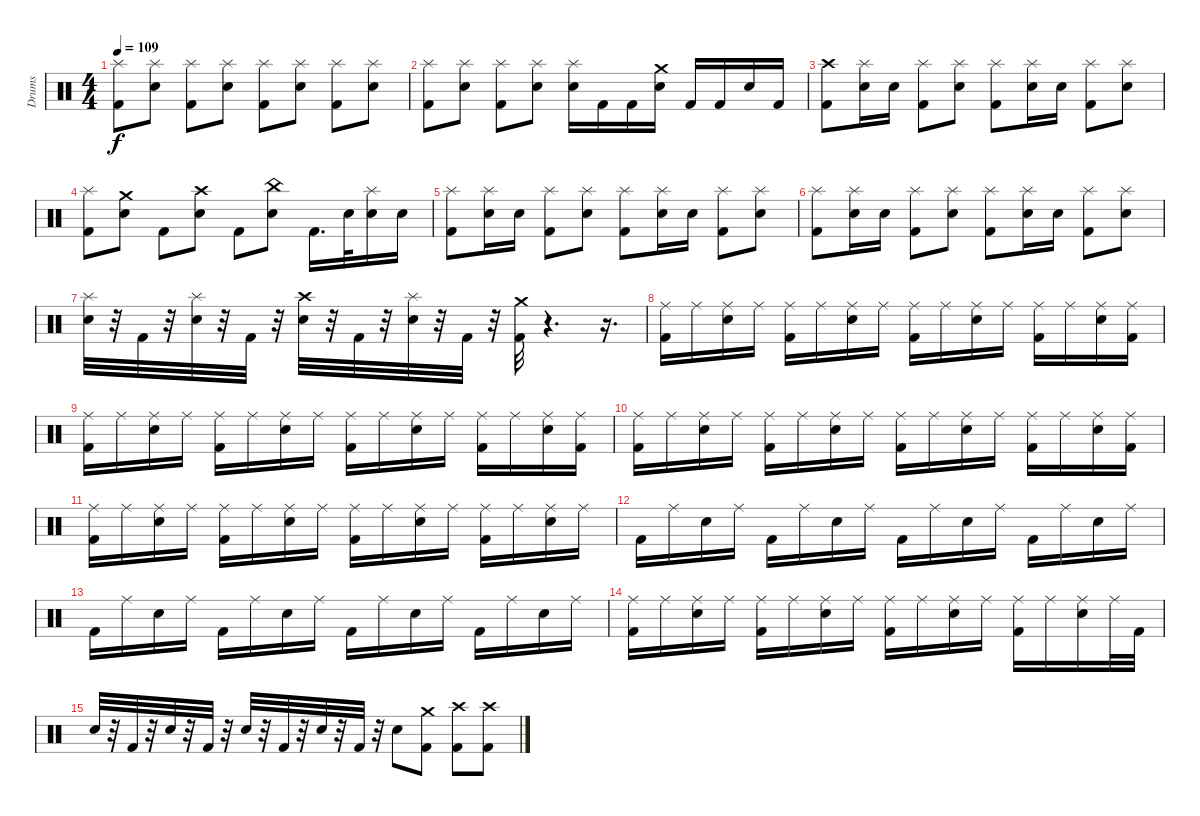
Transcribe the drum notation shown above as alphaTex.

\track ("Drums" "Drums") {instrument percussion}
\staff {score}
\articulation defaults
\ts (4 4)
\tempo 109
\clef neutral
\ks c
("Splash (hit)" "Kick (hit) 2").8{dy f} ("Splash (hit)" "Electric Snare (hit)").8 ("Splash (hit)" "Kick (hit) 2").8 ("Splash (hit)" "Electric Snare (hit)").8 ("Splash (hit)" "Kick (hit) 2").8 ("Splash (hit)" "Electric Snare (hit)").8 ("Splash (hit)" "Kick (hit) 2").8 ("Splash (hit)" "Electric Snare (hit)").8 |
("Splash (hit)" "Kick (hit) 2").8 ("Splash (hit)" "Electric Snare (hit)").8 ("Splash (hit)" "Kick (hit) 2").8 ("Splash (hit)" "Electric Snare (hit)").8 ("Splash (hit)" "Electric Snare (hit)").16 "Kick (hit) 2".16 "Kick (hit) 2".16 ("Crash medium (hit)" "Electric Snare (hit)").16 "Kick (hit) 2".16 "Kick (hit) 2".16 "Electric Snare (hit)".16 "Kick (hit) 2".16 |
("Crash high (hit)" "Kick (hit) 2").8 ("Splash (hit)" "Electric Snare (hit)").16 "Electric Snare (hit)".16 ("Splash (hit)" "Kick (hit) 2").8 ("Splash (hit)" "Electric Snare (hit)").8 ("Splash (hit)" "Kick (hit) 2").8 ("Splash (hit)" "Electric Snare (hit)").16 "Electric Snare (hit)".16 ("Splash (hit)" "Kick (hit) 2").8 ("Splash (hit)" "Electric Snare (hit)").8 |
("Splash (hit)" "Kick (hit) 2").8 ("Crash medium (hit)" "Electric Snare (hit)").8 "Kick (hit) 2".8 ("Crash high (hit)" "Electric Snare (hit)").8 "Kick (hit) 2".8 ("China (hit)" "Electric Snare (hit)").8 "Kick (hit) 2".16{d} "Electric Snare (hit)".32 ("Splash (hit)" "Electric Snare (hit)").16 "Electric Snare (hit)".16 |
("Splash (hit)" "Kick (hit) 2").8 ("Splash (hit)" "Electric Snare (hit)").16 "Electric Snare (hit)".16 ("Splash (hit)" "Kick (hit) 2").8 ("Splash (hit)" "Electric Snare (hit)").8 ("Splash (hit)" "Kick (hit) 2").8 ("Splash (hit)" "Electric Snare (hit)").16 "Electric Snare (hit)".16 ("Splash (hit)" "Kick (hit) 2").8 ("Splash (hit)" "Electric Snare (hit)").8 |
("Splash (hit)" "Kick (hit) 2").8 ("Splash (hit)" "Electric Snare (hit)").16 "Electric Snare (hit)".16 ("Splash (hit)" "Kick (hit) 2").8 ("Splash (hit)" "Electric Snare (hit)").8 ("Splash (hit)" "Kick (hit) 2").8 ("Splash (hit)" "Electric Snare (hit)").16 "Electric Snare (hit)".16 ("Splash (hit)" "Kick (hit) 2").8 ("Splash (hit)" "Electric Snare (hit)").8 |
("Splash (hit)" "Electric Snare (hit)").32 r.32 "Kick (hit) 2".32 r.32 ("Splash (hit)" "Electric Snare (hit)").32 r.32 "Kick (hit) 2".32 r.32 ("Crash high (hit)" "Electric Snare (hit)").32 r.32 "Kick (hit) 2".32 r.32 ("Splash (hit)" "Electric Snare (hit)").32 r.32 "Kick (hit) 2".32 r.32 ("Crash medium (hit)" "Kick (hit) 2").32 r.4{d} r.16{d} |
("Ride (middle)" "Kick (hit) 2").16 "Ride (middle)".16 ("Ride (middle)" "Electric Snare (hit)").16 "Ride (middle)".16 ("Ride (middle)" "Kick (hit) 2").16 "Ride (middle)".16 ("Ride (middle)" "Electric Snare (hit)").16 "Ride (middle)".16 ("Ride (middle)" "Kick (hit) 2").16 "Ride (middle)".16 ("Ride (middle)" "Electric Snare (hit)").16 "Ride (middle)".16 ("Ride (middle)" "Kick (hit) 2").16 "Ride (middle)".16 ("Ride (middle)" "Electric Snare (hit)").16 ("Ride (middle)" "Kick (hit) 2").16 |
("Ride (middle)" "Kick (hit) 2").16 "Ride (middle)".16 ("Ride (middle)" "Electric Snare (hit)").16 "Ride (middle)".16 ("Ride (middle)" "Kick (hit) 2").16 "Ride (middle)".16 ("Ride (middle)" "Electric Snare (hit)").16 "Ride (middle)".16 ("Ride (middle)" "Kick (hit) 2").16 "Ride (middle)".16 ("Ride (middle)" "Electric Snare (hit)").16 "Ride (middle)".16 ("Ride (middle)" "Kick (hit) 2").16 "Ride (middle)".16 ("Ride (middle)" "Electric Snare (hit)").16 ("Ride (middle)" "Kick (hit) 2").16 |
("Ride (middle)" "Kick (hit) 2").16 "Ride (middle)".16 ("Ride (middle)" "Electric Snare (hit)").16 "Ride (middle)".16 ("Ride (middle)" "Kick (hit) 2").16 "Ride (middle)".16 ("Ride (middle)" "Electric Snare (hit)").16 "Ride (middle)".16 ("Ride (middle)" "Kick (hit) 2").16 "Ride (middle)".16 ("Ride (middle)" "Electric Snare (hit)").16 "Ride (middle)".16 ("Ride (middle)" "Kick (hit) 2").16 "Ride (middle)".16 ("Ride (middle)" "Electric Snare (hit)").16 ("Ride (middle)" "Kick (hit) 2").16 |
("Ride (middle)" "Kick (hit) 2").16 "Ride (middle)".16 ("Ride (middle)" "Electric Snare (hit)").16 "Ride (middle)".16 ("Ride (middle)" "Kick (hit) 2").16 "Ride (middle)".16 ("Ride (middle)" "Electric Snare (hit)").16 "Ride (middle)".16 ("Ride (middle)" "Kick (hit) 2").16 "Ride (middle)".16 ("Ride (middle)" "Electric Snare (hit)").16 "Ride (middle)".16 ("Ride (middle)" "Kick (hit) 2").16 "Ride (middle)".16 ("Ride (middle)" "Electric Snare (hit)").16 "Ride (middle)".16 |
"Kick (hit) 2".16 "Ride (middle)".16 "Electric Snare (hit)".16 "Ride (middle)".16 "Kick (hit) 2".16 "Ride (middle)".16 "Electric Snare (hit)".16 "Ride (middle)".16 "Kick (hit) 2".16 "Ride (middle)".16 "Electric Snare (hit)".16 "Ride (middle)".16 "Kick (hit) 2".16 "Ride (middle)".16 "Electric Snare (hit)".16 "Ride (middle)".16 |
"Kick (hit) 2".16 "Ride (middle)".16 "Electric Snare (hit)".16 "Ride (middle)".16 "Kick (hit) 2".16 "Ride (middle)".16 "Electric Snare (hit)".16 "Ride (middle)".16 "Kick (hit) 2".16 "Ride (middle)".16 "Electric Snare (hit)".16 "Ride (middle)".16 "Kick (hit) 2".16 "Ride (middle)".16 "Electric Snare (hit)".16 "Ride (middle)".16 |
("Ride (middle)" "Kick (hit) 2").16 "Ride (middle)".16 ("Ride (middle)" "Electric Snare (hit)").16 "Ride (middle)".16 ("Ride (middle)" "Kick (hit) 2").16 "Ride (middle)".16 ("Ride (middle)" "Electric Snare (hit)").16 "Ride (middle)".16 ("Ride (middle)" "Kick (hit) 2").16 "Ride (middle)".16 ("Ride (middle)" "Electric Snare (hit)").16 "Ride (middle)".16 ("Ride (middle)" "Kick (hit) 2").16 "Ride (middle)".16 ("Ride (middle)" "Electric Snare (hit)").16 "Ride (middle)".32 "Kick (hit) 2".32 |
"Electric Snare (hit)".32 r.32 "Kick (hit) 2".32 r.32 "Electric Snare (hit)".32 r.32 "Kick (hit) 2".32 r.32 "Electric Snare (hit)".32 r.32 "Kick (hit) 2".32 r.32 "Electric Snare (hit)".32 r.32 "Kick (hit) 2".32 r.32 "Electric Snare (hit)".8 ("Crash medium (hit)" "Kick (hit) 2").8 ("Crash high (hit)" "Kick (hit) 2").8 ("Crash high (hit)" "Kick (hit) 2").8
